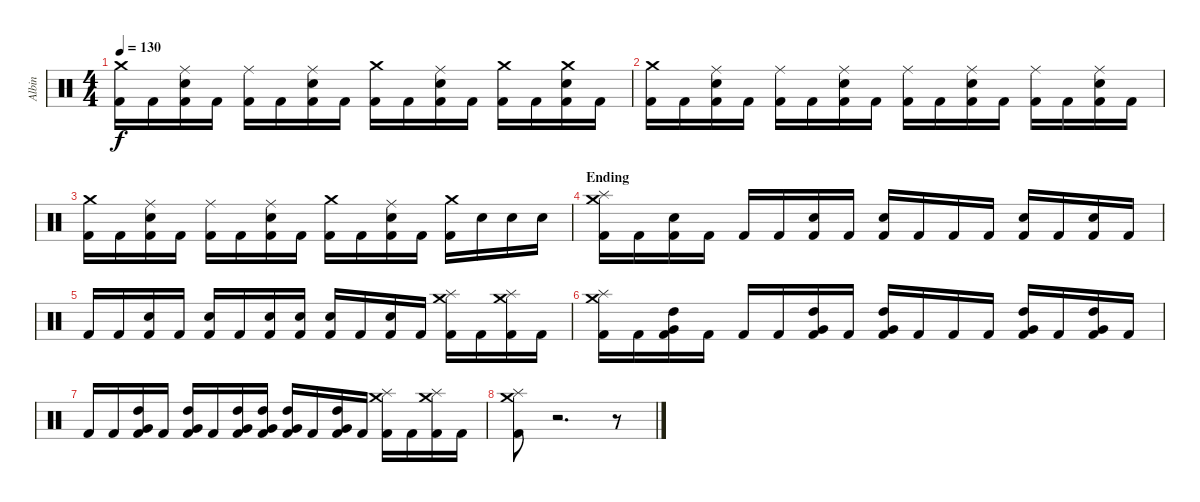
\track ("Albin" "Albin") {instrument percussion}
\staff {score}
\articulation defaults
\ts (4 4)
\tempo 130
\clef neutral
\ks c
("Crash medium (hit)" "Kick (hit) 2").16{dy f} "Kick (hit) 2".16 ("Ride (middle)" "Electric Snare (hit)" "Kick (hit) 2").16 "Kick (hit) 2".16 ("Ride (middle)" "Kick (hit) 2").16 "Kick (hit) 2".16 ("Ride (middle)" "Electric Snare (hit)" "Kick (hit) 2").16 "Kick (hit) 2".16 ("Crash medium (hit)" "Kick (hit) 2").16 "Kick (hit) 2".16 ("Ride (middle)" "Electric Snare (hit)" "Kick (hit) 2").16 "Kick (hit) 2".16 ("Crash medium (hit)" "Kick (hit) 2").16 "Kick (hit) 2".16 ("Crash medium (hit)" "Electric Snare (hit)" "Kick (hit) 2").16 "Kick (hit) 2".16 |
("Crash medium (hit)" "Kick (hit) 2").16 "Kick (hit) 2".16 ("Ride (middle)" "Electric Snare (hit)" "Kick (hit) 2").16 "Kick (hit) 2".16 ("Ride (middle)" "Kick (hit) 2").16 "Kick (hit) 2".16 ("Ride (middle)" "Electric Snare (hit)" "Kick (hit) 2").16 "Kick (hit) 2".16 ("Ride (middle)" "Kick (hit) 2").16 "Kick (hit) 2".16 ("Ride (middle)" "Electric Snare (hit)" "Kick (hit) 2").16 "Kick (hit) 2".16 ("Ride (middle)" "Kick (hit) 2").16 "Kick (hit) 2".16 ("Ride (middle)" "Electric Snare (hit)" "Kick (hit) 2").16 "Kick (hit) 2".16 |
("Crash medium (hit)" "Kick (hit) 2").16 "Kick (hit) 2".16 ("Ride (middle)" "Electric Snare (hit)" "Kick (hit) 2").16 "Kick (hit) 2".16 ("Ride (middle)" "Kick (hit) 2").16 "Kick (hit) 2".16 ("Ride (middle)" "Electric Snare (hit)" "Kick (hit) 2").16 "Kick (hit) 2".16 ("Crash medium (hit)" "Kick (hit) 2").16 "Kick (hit) 2".16 ("Ride (middle)" "Electric Snare (hit)" "Kick (hit) 2").16 "Kick (hit) 2".16 ("Crash medium (hit)" "Kick (hit) 2").16 "Electric Snare (hit)".16 "Electric Snare (hit)".16 "Electric Snare (hit)".16 |
\section ("" "Ending")
("Crash medium (hit)" "Splash (hit)" "Kick (hit) 2").16 "Kick (hit) 2".16 ("Electric Snare (hit)" "Kick (hit) 2").16 "Kick (hit) 2".16 "Kick (hit) 2".16 "Kick (hit) 2".16 ("Electric Snare (hit)" "Kick (hit) 2").16 "Kick (hit) 2".16 ("Electric Snare (hit)" "Kick (hit) 2").16 "Kick (hit) 2".16 "Kick (hit) 2".16 "Kick (hit) 2".16 ("Electric Snare (hit)" "Kick (hit) 2").16 "Kick (hit) 2".16 ("Electric Snare (hit)" "Kick (hit) 2").16 "Kick (hit) 2".16 |
"Kick (hit) 2".16 "Kick (hit) 2".16 ("Electric Snare (hit)" "Kick (hit) 2").16 "Kick (hit) 2".16 ("Electric Snare (hit)" "Kick (hit) 2").16 "Kick (hit) 2".16 ("Electric Snare (hit)" "Kick (hit) 2").16 ("Electric Snare (hit)" "Kick (hit) 2").16 ("Electric Snare (hit)" "Kick (hit) 2").16 "Kick (hit) 2".16 ("Electric Snare (hit)" "Kick (hit) 2").16 "Kick (hit) 2".16 ("Crash medium (hit)" "Splash (hit)" "Kick (hit) 2").16 "Kick (hit) 2".16 ("Crash medium (hit)" "Splash (hit)" "Kick (hit) 2").16 "Kick (hit) 2".16 |
("Crash medium (hit)" "Splash (hit)" "Kick (hit) 2").16 "Kick (hit) 2".16 ("High Tom (hit)" "Very Low Tom (hit)" "Kick (hit) 2").16 "Kick (hit) 2".16 "Kick (hit) 2".16 "Kick (hit) 2".16 ("High Tom (hit)" "Very Low Tom (hit)" "Kick (hit) 2").16 "Kick (hit) 2".16 ("High Tom (hit)" "Very Low Tom (hit)" "Kick (hit) 2").16 "Kick (hit) 2".16 "Kick (hit) 2".16 "Kick (hit) 2".16 ("High Tom (hit)" "Very Low Tom (hit)" "Kick (hit) 2").16 "Kick (hit) 2".16 ("High Tom (hit)" "Very Low Tom (hit)" "Kick (hit) 2").16 "Kick (hit) 2".16 |
"Kick (hit) 2".16 "Kick (hit) 2".16 ("High Tom (hit)" "Very Low Tom (hit)" "Kick (hit) 2").16 "Kick (hit) 2".16 ("High Tom (hit)" "Very Low Tom (hit)" "Kick (hit) 2").16 "Kick (hit) 2".16 ("High Tom (hit)" "Very Low Tom (hit)" "Kick (hit) 2").16 ("High Tom (hit)" "Very Low Tom (hit)" "Kick (hit) 2").16 ("High Tom (hit)" "Very Low Tom (hit)" "Kick (hit) 2").16 "Kick (hit) 2".16 ("High Tom (hit)" "Very Low Tom (hit)" "Kick (hit) 2").16 "Kick (hit) 2".16 ("Crash medium (hit)" "Splash (hit)" "Kick (hit) 2").16 "Kick (hit) 2".16 ("Crash medium (hit)" "Splash (hit)" "Kick (hit) 2").16 "Kick (hit) 2".16 |
("Crash medium (hit)" "Splash (hit)" "Kick (hit) 2").8 r.2{d} r.8
